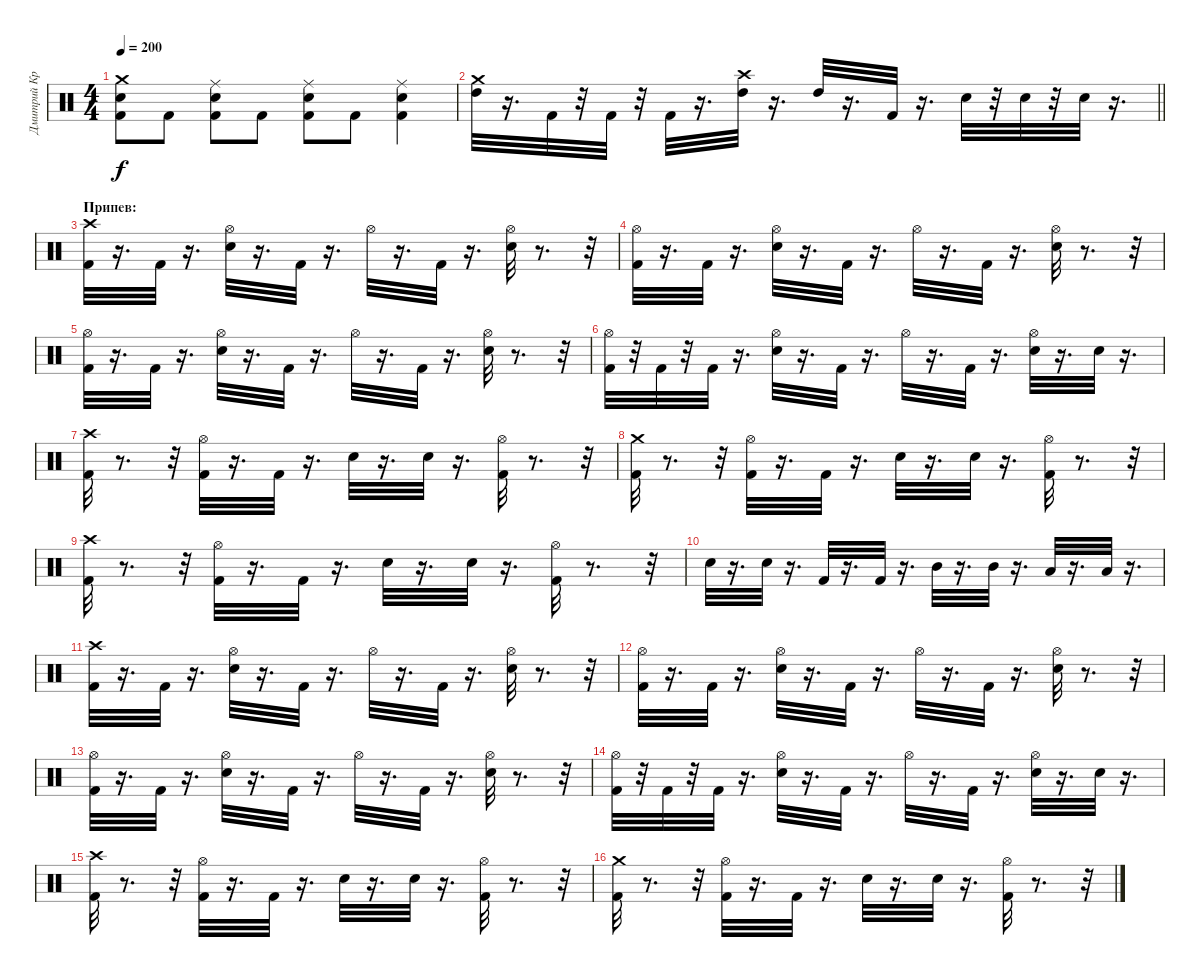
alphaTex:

\track ("Дмитрий Кривенков" "Дмитрий Кр") {instrument percussion}
\staff {score}
\articulation defaults
\ts (4 4)
\tempo 200
\clef neutral
\ks c
("Crash medium (hit)" "Electric Snare (hit)" "Kick (hit) 2").8{dy f} "Kick (hit) 2".8 ("Electric Snare (hit)" "Kick (hit) 2" "Ride (middle)").8 "Kick (hit) 2".8 ("Electric Snare (hit)" "Ride (middle)" "Kick (hit) 2").8 "Kick (hit) 2".8 ("Ride (middle)" "Kick (hit) 2" "Electric Snare (hit)").4 |
\barLineRight lightlight
("High Tom (hit)" "Crash medium (hit)").32 r.16{d} "Kick (hit) 2".32 r.32 "Kick (hit) 2".32 r.32 "Kick (hit) 2".32 r.16{d} ("Crash high (hit)" "High Tom (hit)").32 r.16{d} "High Tom (hit)".32 r.16{d} "Kick (hit) 2".32 r.16{d} "Electric Snare (hit)".32 r.32 "Electric Snare (hit)".32 r.32 "Electric Snare (hit)".32 r.16{d} |
\section ("" "Припев:")
("Crash high (hit)" "Kick (hit) 2").32 r.16{d} "Kick (hit) 2".32 r.16{d} ("Hi-Hat (open)" "Electric Snare (hit)").32 r.16{d} "Kick (hit) 2".32 r.16{d} "Hi-Hat (open)".32 r.16{d} "Kick (hit) 2".32 r.16{d} ("Hi-Hat (open)" "Electric Snare (hit)").32 r.8{d} r.32 |
("Hi-Hat (open)" "Kick (hit) 2").32 r.16{d} "Kick (hit) 2".32 r.16{d} ("Hi-Hat (open)" "Electric Snare (hit)").32 r.16{d} "Kick (hit) 2".32 r.16{d} "Hi-Hat (open)".32 r.16{d} "Kick (hit) 2".32 r.16{d} ("Hi-Hat (open)" "Electric Snare (hit)").32 r.8{d} r.32 |
("Hi-Hat (open)" "Kick (hit) 2").32 r.16{d} "Kick (hit) 2".32 r.16{d} ("Hi-Hat (open)" "Electric Snare (hit)").32 r.16{d} "Kick (hit) 2".32 r.16{d} "Hi-Hat (open)".32 r.16{d} "Kick (hit) 2".32 r.16{d} ("Hi-Hat (open)" "Electric Snare (hit)").32 r.8{d} r.32 |
("Hi-Hat (open)" "Kick (hit) 2").32 r.32 "Kick (hit) 2".32 r.32 "Kick (hit) 2".32 r.16{d} ("Hi-Hat (open)" "Electric Snare (hit)").32 r.16{d} "Kick (hit) 2".32 r.16{d} "Hi-Hat (open)".32 r.16{d} "Kick (hit) 2".32 r.16{d} ("Hi-Hat (open)" "Electric Snare (hit)").32 r.16{d} "Electric Snare (hit)".32 r.16{d} |
("Crash high (hit)" "Kick (hit) 2").32 r.8{d} r.32 ("Hi-Hat (open)" "Kick (hit) 2").32 r.16{d} "Kick (hit) 2".32 r.16{d} "Electric Snare (hit)".32 r.16{d} "Electric Snare (hit)".32 r.16{d} ("Kick (hit) 2" "Hi-Hat (open)").32 r.8{d} r.32 |
("Crash medium (hit)" "Kick (hit) 2").32 r.8{d} r.32 ("Hi-Hat (open)" "Kick (hit) 2").32 r.16{d} "Kick (hit) 2".32 r.16{d} "Electric Snare (hit)".32 r.16{d} "Electric Snare (hit)".32 r.16{d} ("Hi-Hat (open)" "Kick (hit) 2").32 r.8{d} r.32 |
("Crash high (hit)" "Kick (hit) 2").32 r.8{d} r.32 ("Hi-Hat (open)" "Kick (hit) 2").32 r.16{d} "Kick (hit) 2".32 r.16{d} "Electric Snare (hit)".32 r.16{d} "Electric Snare (hit)".32 r.16{d} ("Hi-Hat (open)" "Kick (hit) 2").32 r.8{d} r.32 |
"Electric Snare (hit)".32 r.16{d} "Electric Snare (hit)".32 r.16{d} "Kick (hit) 2".32 r.16{d} "Kick (hit) 2".32 r.16{d} "Mid Tom (hit)".32 r.16{d} "Mid Tom (hit)".32 r.16{d} "Low Tom (hit)".32 r.16{d} "Low Tom (hit)".32 r.16{d} |
("Crash high (hit)" "Kick (hit) 2").32 r.16{d} "Kick (hit) 2".32 r.16{d} ("Hi-Hat (open)" "Electric Snare (hit)").32 r.16{d} "Kick (hit) 2".32 r.16{d} "Hi-Hat (open)".32 r.16{d} "Kick (hit) 2".32 r.16{d} ("Hi-Hat (open)" "Electric Snare (hit)").32 r.8{d} r.32 |
("Hi-Hat (open)" "Kick (hit) 2").32 r.16{d} "Kick (hit) 2".32 r.16{d} ("Hi-Hat (open)" "Electric Snare (hit)").32 r.16{d} "Kick (hit) 2".32 r.16{d} "Hi-Hat (open)".32 r.16{d} "Kick (hit) 2".32 r.16{d} ("Hi-Hat (open)" "Electric Snare (hit)").32 r.8{d} r.32 |
("Hi-Hat (open)" "Kick (hit) 2").32 r.16{d} "Kick (hit) 2".32 r.16{d} ("Hi-Hat (open)" "Electric Snare (hit)").32 r.16{d} "Kick (hit) 2".32 r.16{d} "Hi-Hat (open)".32 r.16{d} "Kick (hit) 2".32 r.16{d} ("Hi-Hat (open)" "Electric Snare (hit)").32 r.8{d} r.32 |
("Hi-Hat (open)" "Kick (hit) 2").32 r.32 "Kick (hit) 2".32 r.32 "Kick (hit) 2".32 r.16{d} ("Hi-Hat (open)" "Electric Snare (hit)").32 r.16{d} "Kick (hit) 2".32 r.16{d} "Hi-Hat (open)".32 r.16{d} "Kick (hit) 2".32 r.16{d} ("Hi-Hat (open)" "Electric Snare (hit)").32 r.16{d} "Electric Snare (hit)".32 r.16{d} |
("Crash high (hit)" "Kick (hit) 2").32 r.8{d} r.32 ("Hi-Hat (open)" "Kick (hit) 2").32 r.16{d} "Kick (hit) 2".32 r.16{d} "Electric Snare (hit)".32 r.16{d} "Electric Snare (hit)".32 r.16{d} ("Kick (hit) 2" "Hi-Hat (open)").32 r.8{d} r.32 |
("Crash medium (hit)" "Kick (hit) 2").32 r.8{d} r.32 ("Hi-Hat (open)" "Kick (hit) 2").32 r.16{d} "Kick (hit) 2".32 r.16{d} "Electric Snare (hit)".32 r.16{d} "Electric Snare (hit)".32 r.16{d} ("Hi-Hat (open)" "Kick (hit) 2").32 r.8{d} r.32
